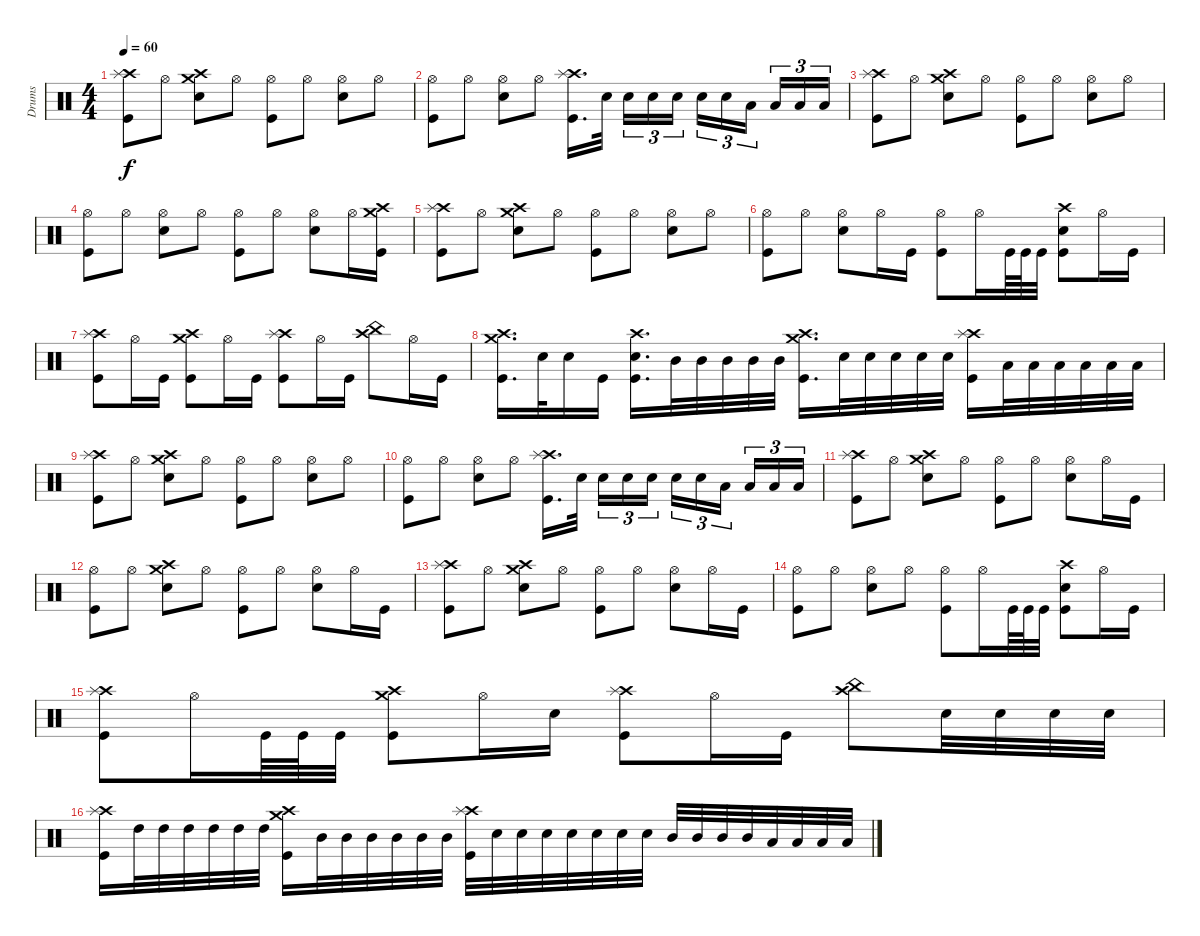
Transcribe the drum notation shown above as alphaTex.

\track ("Drums" "Drums") {instrument percussion}
\staff {score}
\articulation defaults
\ts (4 4)
\tempo 60
\clef neutral
\ks c
("Crash high (hit)" "Splash (hit)" "Kick (hit)").8{dy f} "Hi-Hat (open)".8 ("Crash high (hit)" "Crash medium (hit)" "Electric Snare (hit)").8 "Hi-Hat (open)".8 ("Hi-Hat (open)" "Kick (hit)").8 "Hi-Hat (open)".8 ("Hi-Hat (open)" "Electric Snare (hit)").8 "Hi-Hat (open)".8 |
("Hi-Hat (open)" "Kick (hit)").8 "Hi-Hat (open)".8 ("Hi-Hat (open)" "Electric Snare (hit)").8 "Hi-Hat (open)".8 ("Crash high (hit)" "Splash (hit)" "Kick (hit)").16{d} "Electric Snare (hit)".32{beam splitsecondary} "Electric Snare (hit)".16{tu (3 2)} "Electric Snare (hit)".16{tu (3 2)} "Electric Snare (hit)".16{tu (3 2)} "Electric Snare (hit)".16{tu (3 2)} "Electric Snare (hit)".16{tu (3 2)} "Low Tom (hit)".16{tu (3 2) beam splitsecondary} "Low Tom (hit)".16{tu (3 2)} "Low Tom (hit)".16{tu (3 2)} "Low Tom (hit)".16{tu (3 2)} |
("Crash high (hit)" "Splash (hit)" "Kick (hit)").8 "Hi-Hat (open)".8 ("Crash high (hit)" "Crash medium (hit)" "Electric Snare (hit)").8 "Hi-Hat (open)".8 ("Hi-Hat (open)" "Kick (hit)").8 "Hi-Hat (open)".8 ("Hi-Hat (open)" "Electric Snare (hit)").8 "Hi-Hat (open)".8 |
("Hi-Hat (open)" "Kick (hit)").8 "Hi-Hat (open)".8 ("Hi-Hat (open)" "Electric Snare (hit)").8 "Hi-Hat (open)".8 ("Hi-Hat (open)" "Kick (hit)").8 "Hi-Hat (open)".8 ("Hi-Hat (open)" "Electric Snare (hit)").8 "Hi-Hat (open)".16 ("Crash high (hit)" "Crash medium (hit)" "Kick (hit)").16 |
("Crash high (hit)" "Splash (hit)" "Kick (hit)").8 "Hi-Hat (open)".8 ("Crash high (hit)" "Crash medium (hit)" "Electric Snare (hit)").8 "Hi-Hat (open)".8 ("Hi-Hat (open)" "Kick (hit)").8 "Hi-Hat (open)".8 ("Hi-Hat (open)" "Electric Snare (hit)").8 "Hi-Hat (open)".8 |
("Hi-Hat (open)" "Kick (hit)").8 "Hi-Hat (open)".8 ("Hi-Hat (open)" "Electric Snare (hit)").8 "Hi-Hat (open)".16 "Kick (hit)".16 ("Hi-Hat (open)" "Kick (hit)").8 "Hi-Hat (open)".16 "Kick (hit)".64 "Kick (hit)".64 "Kick (hit)".32 ("Crash high (hit)" "Electric Snare (hit)" "Kick (hit)").8 "Hi-Hat (open)".16 "Kick (hit)".16 |
("Crash high (hit)" "Splash (hit)" "Kick (hit)").8 "Hi-Hat (open)".16 "Kick (hit)".16 ("Crash high (hit)" "Crash medium (hit)" "Kick (hit)").8 "Hi-Hat (open)".16 "Kick (hit)".16 ("Crash high (hit)" "Splash (hit)" "Kick (hit)").8 "Hi-Hat (open)".16 "Kick (hit)".16 ("Crash high (hit)" "China (hit)").8 "Hi-Hat (open)".16 "Kick (hit)".16 |
("Crash high (hit)" "Crash medium (hit)" "Kick (hit)").16{d} "Electric Snare (hit)".32 "Electric Snare (hit)".16 "Kick (hit)".16 ("Crash high (hit)" "Electric Snare (hit)" "Kick (hit)").16{d} "Mid Tom (hit)".32 "Mid Tom (hit)".32 "Mid Tom (hit)".32 "Mid Tom (hit)".32 "Mid Tom (hit)".32 ("Crash high (hit)" "Crash medium (hit)" "Kick (hit)").16{d} "Electric Snare (hit)".32 "Electric Snare (hit)".32 "Electric Snare (hit)".32 "Electric Snare (hit)".32 "Electric Snare (hit)".32 ("Crash high (hit)" "Splash (hit)" "Kick (hit)").16 "Low Tom (hit)".32 "Low Tom (hit)".32 "Low Tom (hit)".32 "Low Tom (hit)".32 "Low Tom (hit)".32 "Low Tom (hit)".32 |
("Crash high (hit)" "Splash (hit)" "Kick (hit)").8 "Hi-Hat (open)".8 ("Crash high (hit)" "Crash medium (hit)" "Electric Snare (hit)").8 "Hi-Hat (open)".8 ("Hi-Hat (open)" "Kick (hit)").8 "Hi-Hat (open)".8 ("Hi-Hat (open)" "Electric Snare (hit)").8 "Hi-Hat (open)".8 |
("Hi-Hat (open)" "Kick (hit)").8 "Hi-Hat (open)".8 ("Hi-Hat (open)" "Electric Snare (hit)").8 "Hi-Hat (open)".8 ("Crash high (hit)" "Splash (hit)" "Kick (hit)").16{d} "Electric Snare (hit)".32{beam splitsecondary} "Electric Snare (hit)".16{tu (3 2)} "Electric Snare (hit)".16{tu (3 2)} "Electric Snare (hit)".16{tu (3 2)} "Electric Snare (hit)".16{tu (3 2)} "Electric Snare (hit)".16{tu (3 2)} "Low Tom (hit)".16{tu (3 2) beam splitsecondary} "Low Tom (hit)".16{tu (3 2)} "Low Tom (hit)".16{tu (3 2)} "Low Tom (hit)".16{tu (3 2)} |
("Crash high (hit)" "Splash (hit)" "Kick (hit)").8 "Hi-Hat (open)".8 ("Crash high (hit)" "Crash medium (hit)" "Electric Snare (hit)").8 "Hi-Hat (open)".8 ("Hi-Hat (open)" "Kick (hit)").8 "Hi-Hat (open)".8 ("Hi-Hat (open)" "Electric Snare (hit)").8 "Hi-Hat (open)".16 "Kick (hit)".16 |
("Hi-Hat (open)" "Kick (hit)").8 "Hi-Hat (open)".8 ("Crash high (hit)" "Crash medium (hit)" "Electric Snare (hit)").8 "Hi-Hat (open)".8 ("Hi-Hat (open)" "Kick (hit)").8 "Hi-Hat (open)".8 ("Hi-Hat (open)" "Electric Snare (hit)").8 "Hi-Hat (open)".16 "Kick (hit)".16 |
("Crash high (hit)" "Splash (hit)" "Kick (hit)").8 "Hi-Hat (open)".8 ("Crash high (hit)" "Crash medium (hit)" "Electric Snare (hit)").8 "Hi-Hat (open)".8 ("Hi-Hat (open)" "Kick (hit)").8 "Hi-Hat (open)".8 ("Hi-Hat (open)" "Electric Snare (hit)").8 "Hi-Hat (open)".16 "Kick (hit)".16 |
("Hi-Hat (open)" "Kick (hit)").8 "Hi-Hat (open)".8 ("Hi-Hat (open)" "Electric Snare (hit)").8 "Hi-Hat (open)".8 ("Hi-Hat (open)" "Kick (hit)").8 "Hi-Hat (open)".16 "Kick (hit)".64 "Kick (hit)".64 "Kick (hit)".32 ("Crash high (hit)" "Electric Snare (hit)" "Kick (hit)").8 "Hi-Hat (open)".16 "Kick (hit)".16 |
("Crash high (hit)" "Splash (hit)" "Kick (hit)").8 "Hi-Hat (open)".16 "Kick (hit)".64 "Kick (hit)".64 "Kick (hit)".32 ("Crash high (hit)" "Crash medium (hit)" "Kick (hit)").8 "Hi-Hat (open)".16 "Electric Snare (hit)".16 ("Crash high (hit)" "Splash (hit)" "Kick (hit)").8 "Hi-Hat (open)".16 "Kick (hit)".16 ("Crash high (hit)" "China (hit)").8 "Electric Snare (hit)".32 "Electric Snare (hit)".32 "Electric Snare (hit)".32 "Electric Snare (hit)".32 |
("Crash high (hit)" "Splash (hit)" "Kick (hit)").16 "High Tom (hit)".32 "High Tom (hit)".32 "High Tom (hit)".32 "High Tom (hit)".32 "High Tom (hit)".32 "High Tom (hit)".32 ("Crash high (hit)" "Crash medium (hit)" "Kick (hit)").16 "Mid Tom (hit)".32 "Mid Tom (hit)".32 "Mid Tom (hit)".32 "Mid Tom (hit)".32 "Mid Tom (hit)".32 "Mid Tom (hit)".32 ("Crash high (hit)" "Splash (hit)" "Kick (hit)").32 "Electric Snare (hit)".32 "Electric Snare (hit)".32 "Electric Snare (hit)".32 "Electric Snare (hit)".32 "Electric Snare (hit)".32 "Electric Snare (hit)".32 "Electric Snare (hit)".32 "Mid Tom (hit)".32 "Mid Tom (hit)".32 "Mid Tom (hit)".32 "Mid Tom (hit)".32 "Low Tom (hit)".32 "Low Tom (hit)".32 "Low Tom (hit)".32 "Low Tom (hit)".32
